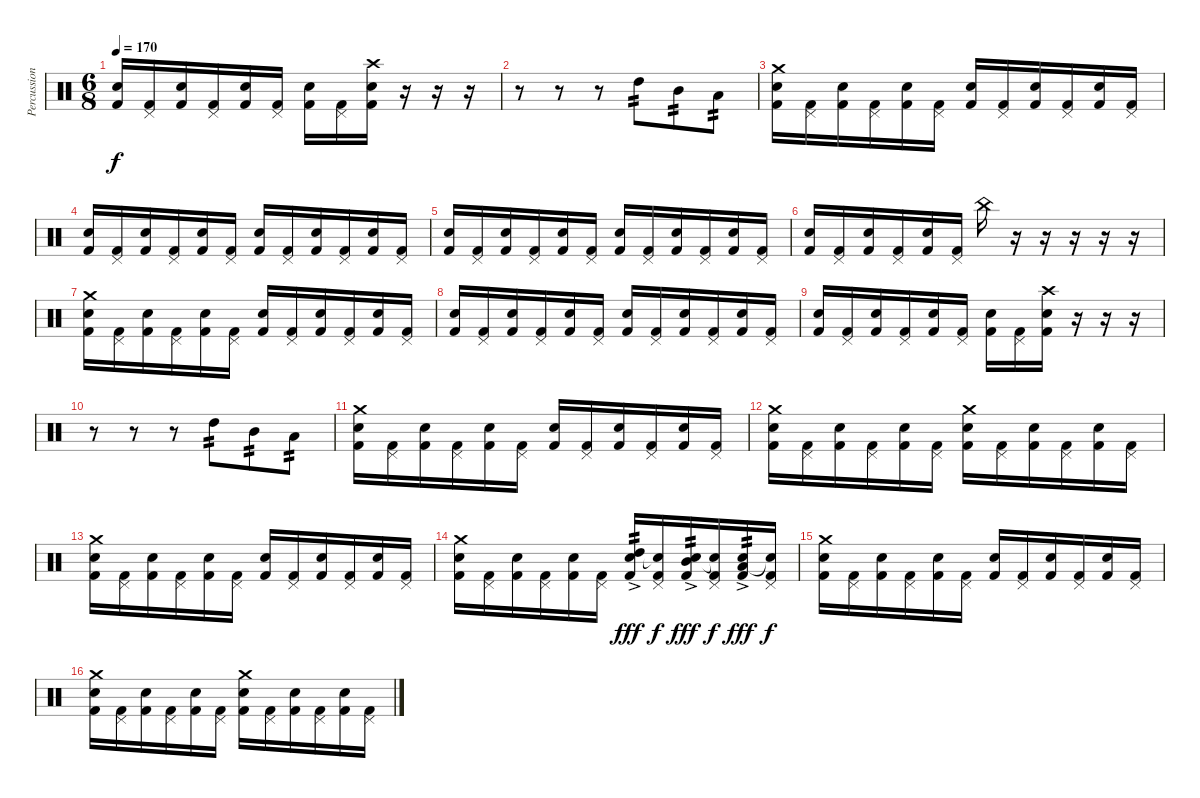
\track ("Percussions" "Percussion") {instrument percussion}
\staff {score}
\articulation defaults
\ts (6 8)
\tempo 170
\clef neutral
\ks c
("Snare (hit) 2" "Kick (hit) 2").16{dy f} ("Pedal Hi-Hat (hit)" "Kick (hit) 2").16 ("Snare (hit) 2" "Kick (hit) 2").16 ("Pedal Hi-Hat (hit)" "Kick (hit) 2").16 ("Snare (hit) 2" "Kick (hit) 2").16 ("Pedal Hi-Hat (hit)" "Kick (hit) 2").16 ("Snare (hit) 2" "Kick (hit) 2").16 ("Pedal Hi-Hat (hit)" "Kick (hit) 2").16 ("Crash high (hit)" "Snare (hit) 2" "Kick (hit) 2").16 r.16 r.16 r.16 |
r.8 r.8 r.8 "High Tom (hit)".8{tp 2} "Mid Tom (hit)".8{tp 2} "Low Tom (hit)".8{tp 2} |
("Crash medium (hit)" "Snare (hit) 2" "Kick (hit) 2").16 ("Pedal Hi-Hat (hit)" "Kick (hit) 2").16 ("Snare (hit) 2" "Kick (hit) 2").16 ("Pedal Hi-Hat (hit)" "Kick (hit) 2").16 ("Snare (hit) 2" "Kick (hit) 2").16 ("Pedal Hi-Hat (hit)" "Kick (hit) 2").16 ("Snare (hit) 2" "Kick (hit) 2").16 ("Pedal Hi-Hat (hit)" "Kick (hit) 2").16 ("Snare (hit) 2" "Kick (hit) 2").16 ("Pedal Hi-Hat (hit)" "Kick (hit) 2").16 ("Snare (hit) 2" "Kick (hit) 2").16 ("Pedal Hi-Hat (hit)" "Kick (hit) 2").16 |
("Snare (hit) 2" "Kick (hit) 2").16 ("Pedal Hi-Hat (hit)" "Kick (hit) 2").16 ("Snare (hit) 2" "Kick (hit) 2").16 ("Pedal Hi-Hat (hit)" "Kick (hit) 2").16 ("Snare (hit) 2" "Kick (hit) 2").16 ("Pedal Hi-Hat (hit)" "Kick (hit) 2").16 ("Snare (hit) 2" "Kick (hit) 2").16 ("Pedal Hi-Hat (hit)" "Kick (hit) 2").16 ("Snare (hit) 2" "Kick (hit) 2").16 ("Pedal Hi-Hat (hit)" "Kick (hit) 2").16 ("Snare (hit) 2" "Kick (hit) 2").16 ("Pedal Hi-Hat (hit)" "Kick (hit) 2").16 |
("Snare (hit) 2" "Kick (hit) 2").16 ("Pedal Hi-Hat (hit)" "Kick (hit) 2").16 ("Snare (hit) 2" "Kick (hit) 2").16 ("Pedal Hi-Hat (hit)" "Kick (hit) 2").16 ("Snare (hit) 2" "Kick (hit) 2").16 ("Pedal Hi-Hat (hit)" "Kick (hit) 2").16 ("Snare (hit) 2" "Kick (hit) 2").16 ("Pedal Hi-Hat (hit)" "Kick (hit) 2").16 ("Snare (hit) 2" "Kick (hit) 2").16 ("Pedal Hi-Hat (hit)" "Kick (hit) 2").16 ("Snare (hit) 2" "Kick (hit) 2").16 ("Pedal Hi-Hat (hit)" "Kick (hit) 2").16 |
("Snare (hit) 2" "Kick (hit) 2").16 ("Pedal Hi-Hat (hit)" "Kick (hit) 2").16 ("Snare (hit) 2" "Kick (hit) 2").16 ("Pedal Hi-Hat (hit)" "Kick (hit) 2").16 ("Snare (hit) 2" "Kick (hit) 2").16 ("Pedal Hi-Hat (hit)" "Kick (hit) 2").16 "China (hit)".16 r.16 r.16 r.16 r.16 r.16 |
("Crash medium (hit)" "Snare (hit) 2" "Kick (hit) 2").16 ("Pedal Hi-Hat (hit)" "Kick (hit) 2").16 ("Snare (hit) 2" "Kick (hit) 2").16 ("Pedal Hi-Hat (hit)" "Kick (hit) 2").16 ("Snare (hit) 2" "Kick (hit) 2").16 ("Pedal Hi-Hat (hit)" "Kick (hit) 2").16 ("Snare (hit) 2" "Kick (hit) 2").16 ("Pedal Hi-Hat (hit)" "Kick (hit) 2").16 ("Snare (hit) 2" "Kick (hit) 2").16 ("Pedal Hi-Hat (hit)" "Kick (hit) 2").16 ("Snare (hit) 2" "Kick (hit) 2").16 ("Pedal Hi-Hat (hit)" "Kick (hit) 2").16 |
("Snare (hit) 2" "Kick (hit) 2").16 ("Pedal Hi-Hat (hit)" "Kick (hit) 2").16 ("Snare (hit) 2" "Kick (hit) 2").16 ("Pedal Hi-Hat (hit)" "Kick (hit) 2").16 ("Snare (hit) 2" "Kick (hit) 2").16 ("Pedal Hi-Hat (hit)" "Kick (hit) 2").16 ("Snare (hit) 2" "Kick (hit) 2").16 ("Pedal Hi-Hat (hit)" "Kick (hit) 2").16 ("Snare (hit) 2" "Kick (hit) 2").16 ("Pedal Hi-Hat (hit)" "Kick (hit) 2").16 ("Snare (hit) 2" "Kick (hit) 2").16 ("Pedal Hi-Hat (hit)" "Kick (hit) 2").16 |
("Snare (hit) 2" "Kick (hit) 2").16 ("Pedal Hi-Hat (hit)" "Kick (hit) 2").16 ("Snare (hit) 2" "Kick (hit) 2").16 ("Pedal Hi-Hat (hit)" "Kick (hit) 2").16 ("Snare (hit) 2" "Kick (hit) 2").16 ("Pedal Hi-Hat (hit)" "Kick (hit) 2").16 ("Snare (hit) 2" "Kick (hit) 2").16 ("Pedal Hi-Hat (hit)" "Kick (hit) 2").16 ("Crash high (hit)" "Snare (hit) 2" "Kick (hit) 2").16 r.16 r.16 r.16 |
r.8 r.8 r.8 "High Tom (hit)".8{tp 2} "Mid Tom (hit)".8{tp 2} "Low Tom (hit)".8{tp 2} |
("Crash medium (hit)" "Snare (hit) 2" "Kick (hit) 2").16 ("Pedal Hi-Hat (hit)" "Kick (hit) 2").16 ("Snare (hit) 2" "Kick (hit) 2").16 ("Pedal Hi-Hat (hit)" "Kick (hit) 2").16 ("Snare (hit) 2" "Kick (hit) 2").16 ("Pedal Hi-Hat (hit)" "Kick (hit) 2").16 ("Snare (hit) 2" "Kick (hit) 2").16 ("Pedal Hi-Hat (hit)" "Kick (hit) 2").16 ("Snare (hit) 2" "Kick (hit) 2").16 ("Pedal Hi-Hat (hit)" "Kick (hit) 2").16 ("Snare (hit) 2" "Kick (hit) 2").16 ("Pedal Hi-Hat (hit)" "Kick (hit) 2").16 |
("Crash medium (hit)" "Snare (hit) 2" "Kick (hit) 2").16 ("Pedal Hi-Hat (hit)" "Kick (hit) 2").16 ("Snare (hit) 2" "Kick (hit) 2").16 ("Pedal Hi-Hat (hit)" "Kick (hit) 2").16 ("Snare (hit) 2" "Kick (hit) 2").16 ("Pedal Hi-Hat (hit)" "Kick (hit) 2").16 ("Crash medium (hit)" "Snare (hit) 2" "Kick (hit) 2").16 ("Pedal Hi-Hat (hit)" "Kick (hit) 2").16 ("Snare (hit) 2" "Kick (hit) 2").16 ("Pedal Hi-Hat (hit)" "Kick (hit) 2").16 ("Snare (hit) 2" "Kick (hit) 2").16 ("Pedal Hi-Hat (hit)" "Kick (hit) 2").16 |
("Crash medium (hit)" "Snare (hit) 2" "Kick (hit) 2").16 ("Pedal Hi-Hat (hit)" "Kick (hit) 2").16 ("Snare (hit) 2" "Kick (hit) 2").16 ("Pedal Hi-Hat (hit)" "Kick (hit) 2").16 ("Snare (hit) 2" "Kick (hit) 2").16 ("Pedal Hi-Hat (hit)" "Kick (hit) 2").16 ("Snare (hit) 2" "Kick (hit) 2").16 ("Pedal Hi-Hat (hit)" "Kick (hit) 2").16 ("Snare (hit) 2" "Kick (hit) 2").16 ("Pedal Hi-Hat (hit)" "Kick (hit) 2").16 ("Snare (hit) 2" "Kick (hit) 2").16 ("Pedal Hi-Hat (hit)" "Kick (hit) 2").16 |
("Crash medium (hit)" "Snare (hit) 2" "Kick (hit) 2").16 ("Pedal Hi-Hat (hit)" "Kick (hit) 2").16 ("Snare (hit) 2" "Kick (hit) 2").16 ("Pedal Hi-Hat (hit)" "Kick (hit) 2").16 ("Snare (hit) 2" "Kick (hit) 2").16 ("Pedal Hi-Hat (hit)" "Kick (hit) 2").16 ("High Tom (hit)"{ac} "Snare (hit) 2" "Kick (hit) 2").16{tp 2 dy fff} ("Snare (hit)"{t} "Pedal Hi-Hat (hit)" "Kick (hit) 2").16{dy f} ("Mid Tom (hit)"{ac} "Snare (hit) 2" "Kick (hit) 2").16{tp 2 dy fff} ("Snare (hit)"{t} "Pedal Hi-Hat (hit)" "Kick (hit) 2").16{dy f} ("Low Tom (hit)"{ac} "Snare (hit) 2" "Kick (hit) 2").16{tp 2 dy fff} ("Snare (hit)"{t} "Pedal Hi-Hat (hit)" "Kick (hit) 2").16{dy f} |
("Crash medium (hit)" "Snare (hit) 2" "Kick (hit) 2").16 ("Pedal Hi-Hat (hit)" "Kick (hit) 2").16 ("Snare (hit) 2" "Kick (hit) 2").16 ("Pedal Hi-Hat (hit)" "Kick (hit) 2").16 ("Snare (hit) 2" "Kick (hit) 2").16 ("Pedal Hi-Hat (hit)" "Kick (hit) 2").16 ("Snare (hit) 2" "Kick (hit) 2").16 ("Pedal Hi-Hat (hit)" "Kick (hit) 2").16 ("Snare (hit) 2" "Kick (hit) 2").16 ("Pedal Hi-Hat (hit)" "Kick (hit) 2").16 ("Snare (hit) 2" "Kick (hit) 2").16 ("Pedal Hi-Hat (hit)" "Kick (hit) 2").16 |
("Crash medium (hit)" "Snare (hit) 2" "Kick (hit) 2").16 ("Pedal Hi-Hat (hit)" "Kick (hit) 2").16 ("Snare (hit) 2" "Kick (hit) 2").16 ("Pedal Hi-Hat (hit)" "Kick (hit) 2").16 ("Snare (hit) 2" "Kick (hit) 2").16 ("Pedal Hi-Hat (hit)" "Kick (hit) 2").16 ("Crash medium (hit)" "Snare (hit) 2" "Kick (hit) 2").16 ("Pedal Hi-Hat (hit)" "Kick (hit) 2").16 ("Snare (hit) 2" "Kick (hit) 2").16 ("Pedal Hi-Hat (hit)" "Kick (hit) 2").16 ("Snare (hit) 2" "Kick (hit) 2").16 ("Pedal Hi-Hat (hit)" "Kick (hit) 2").16
